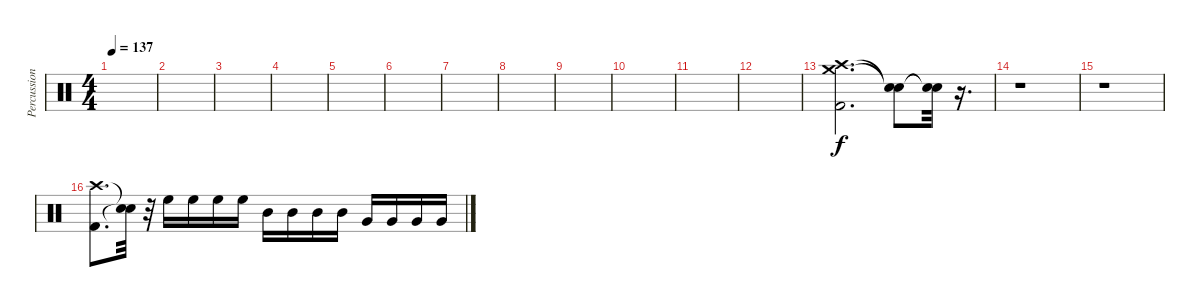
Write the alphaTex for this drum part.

\track ("Percussion" "Percussion") {instrument percussion}
\staff {score}
\articulation defaults
\ts (4 4)
\tempo 137
\clef neutral
\ks c
|
|
|
|
|
|
|
|
|
|
|
|
("Crash high (hit)" "Crash medium (hit)" "Kick (hit) 2").2{d volume 16} ("Snare (hit)"{t} "Snare (hit)"{t}).8 ("Snare (hit)"{t} "Snare (hit)"{t}).32 r.16{d} |
r.1 |
r.1 |
("Crash high (hit)" "Kick (hit) 2").8{d} ("Snare (hit)"{t} "Snare (hit)"{t}).32 r.32 "High Floor Tom (hit)".16 "High Floor Tom (hit)".16 "High Floor Tom (hit)".16 "High Floor Tom (hit)".16 "Mid Tom (hit)".16 "Mid Tom (hit)".16 "Mid Tom (hit)".16 "Mid Tom (hit)".16 "Very Low Tom (hit)".16 "Very Low Tom (hit)".16 "Very Low Tom (hit)".16 "Very Low Tom (hit)".16
